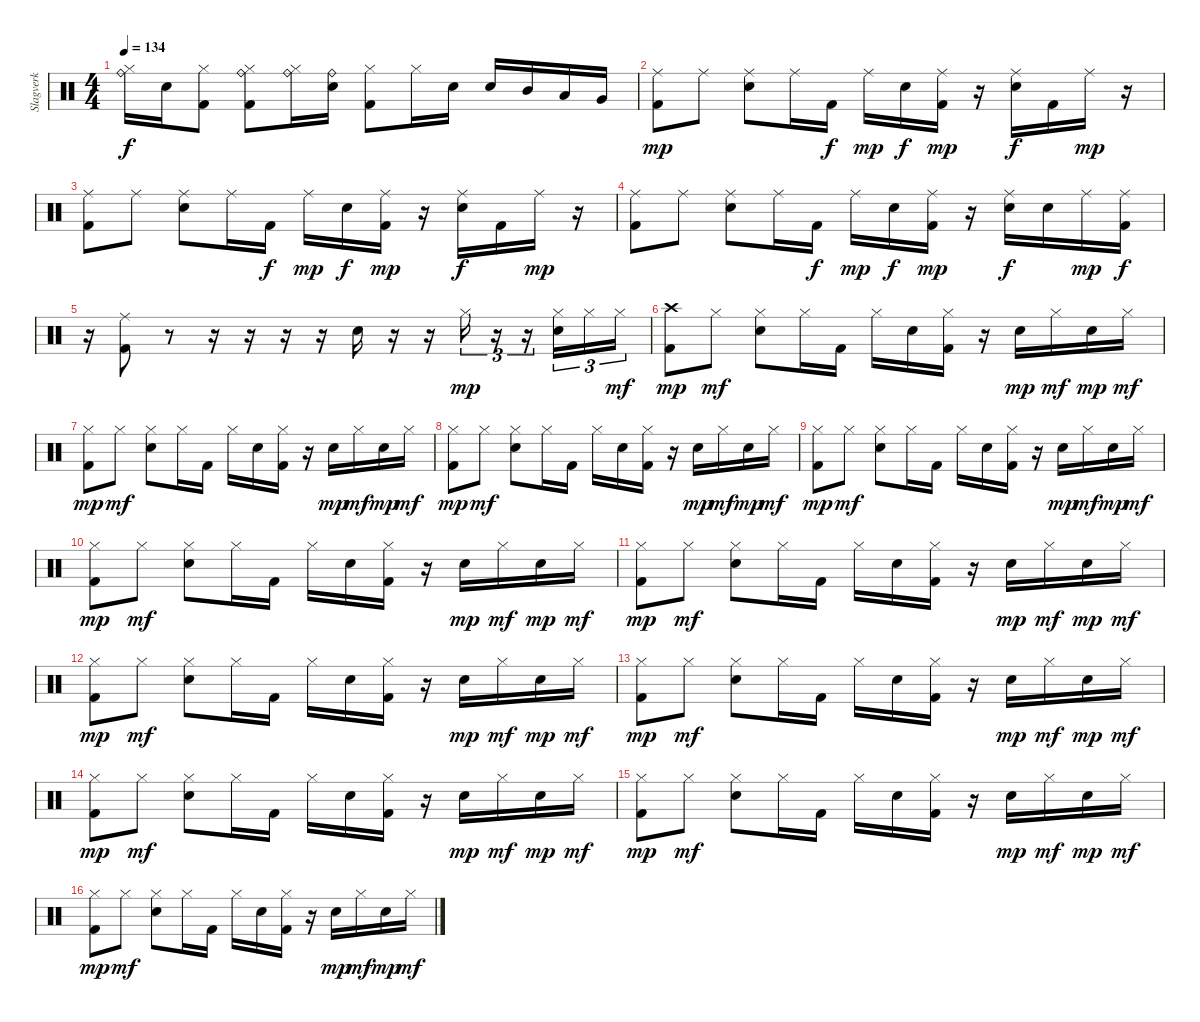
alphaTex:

\track ("Slagverk" "Slagverk") {instrument percussion}
\staff {score}
\articulation defaults
\ts (4 4)
\tempo 134
\clef neutral
\ks c
("Ride (bell)" "Hi-Hat (closed)").16{dy f} "Electric Snare (hit)".16 ("Kick (hit) 2" "Hi-Hat (closed)").8 ("Ride (bell)" "Kick (hit) 2" "Hi-Hat (closed)").8 ("Ride (bell)" "Hi-Hat (closed)").16 ("Ride (bell)" "Electric Snare (hit)").16 ("Kick (hit) 2" "Hi-Hat (closed)").8 "Hi-Hat (closed)".16 "Electric Snare (hit)".16 "Electric Snare (hit)".16 "Mid Tom (hit)".16 "Low Tom (hit)".16 "Very Low Tom (hit)".16 |
("Ride (middle)" "Kick (hit) 2").8{dy mp} "Ride (middle)".8 ("Ride (middle)" "Electric Snare (hit)").8 "Ride (middle)".16 "Kick (hit) 2".16{dy f} "Ride (middle)".16{dy mp} "Electric Snare (hit)".16{dy f} ("Ride (middle)" "Kick (hit) 2").16{dy mp} r.16 ("Ride (middle)" "Electric Snare (hit)").16{dy f} "Kick (hit) 2".16 "Ride (middle)".16{dy mp} r.16 |
("Ride (middle)" "Kick (hit) 2").8 "Ride (middle)".8 ("Ride (middle)" "Electric Snare (hit)").8 "Ride (middle)".16 "Kick (hit) 2".16{dy f} "Ride (middle)".16{dy mp} "Electric Snare (hit)".16{dy f} ("Ride (middle)" "Kick (hit) 2").16{dy mp} r.16 ("Ride (middle)" "Electric Snare (hit)").16{dy f} "Kick (hit) 2".16 "Ride (middle)".16{dy mp} r.16 |
("Ride (middle)" "Kick (hit) 2").8 "Ride (middle)".8 ("Ride (middle)" "Electric Snare (hit)").8 "Ride (middle)".16 "Kick (hit) 2".16{dy f} "Ride (middle)".16{dy mp} "Electric Snare (hit)".16{dy f} ("Ride (middle)" "Kick (hit) 2").16{dy mp} r.16 ("Ride (middle)" "Electric Snare (hit)").16{dy f} "Electric Snare (hit)".16 "Ride (middle)".16{dy mp} ("Ride (middle)" "Kick (hit) 2").16{dy f} |
r.16 ("Ride (middle)" "Kick (hit) 2").8 r.8 r.16 r.16 r.16 r.16 "Electric Snare (hit)".16 r.16 r.16 "Hi-Hat (closed)".16{tu (3 2) dy mp} r.16{tu (3 2)} r.16{tu (3 2)} ("Hi-Hat (closed)" "Electric Snare (hit)").16{tu (3 2)} "Hi-Hat (closed)".16{tu (3 2)} "Hi-Hat (closed)".16{tu (3 2) dy mf} |
("Crash high (hit)" "Kick (hit) 2").8{dy mp} "Hi-Hat (closed)".8{dy mf} ("Hi-Hat (closed)" "Electric Snare (hit)").8 "Hi-Hat (closed)".16 "Kick (hit) 2".16 "Hi-Hat (closed)".16 "Electric Snare (hit)".16 ("Hi-Hat (closed)" "Kick (hit) 2").16 r.16 "Electric Snare (hit)".16{dy mp} "Hi-Hat (closed)".16{dy mf} "Electric Snare (hit)".16{dy mp} "Hi-Hat (closed)".16{dy mf} |
("Hi-Hat (closed)" "Kick (hit) 2").8{dy mp} "Hi-Hat (closed)".8{dy mf} ("Hi-Hat (closed)" "Electric Snare (hit)").8 "Hi-Hat (closed)".16 "Kick (hit) 2".16 "Hi-Hat (closed)".16 "Electric Snare (hit)".16 ("Hi-Hat (closed)" "Kick (hit) 2").16 r.16 "Electric Snare (hit)".16{dy mp} "Hi-Hat (closed)".16{dy mf} "Electric Snare (hit)".16{dy mp} "Hi-Hat (closed)".16{dy mf} |
("Hi-Hat (closed)" "Kick (hit) 2").8{dy mp} "Hi-Hat (closed)".8{dy mf} ("Hi-Hat (closed)" "Electric Snare (hit)").8 "Hi-Hat (closed)".16 "Kick (hit) 2".16 "Hi-Hat (closed)".16 "Electric Snare (hit)".16 ("Hi-Hat (closed)" "Kick (hit) 2").16 r.16 "Electric Snare (hit)".16{dy mp} "Hi-Hat (closed)".16{dy mf} "Electric Snare (hit)".16{dy mp} "Hi-Hat (closed)".16{dy mf} |
("Hi-Hat (closed)" "Kick (hit) 2").8{dy mp} "Hi-Hat (closed)".8{dy mf} ("Hi-Hat (closed)" "Electric Snare (hit)").8 "Hi-Hat (closed)".16 "Kick (hit) 2".16 "Hi-Hat (closed)".16 "Electric Snare (hit)".16 ("Hi-Hat (closed)" "Kick (hit) 2").16 r.16 "Electric Snare (hit)".16{dy mp} "Hi-Hat (closed)".16{dy mf} "Electric Snare (hit)".16{dy mp} "Hi-Hat (closed)".16{dy mf} |
("Hi-Hat (closed)" "Kick (hit) 2").8{dy mp} "Hi-Hat (closed)".8{dy mf} ("Hi-Hat (closed)" "Electric Snare (hit)").8 "Hi-Hat (closed)".16 "Kick (hit) 2".16 "Hi-Hat (closed)".16 "Electric Snare (hit)".16 ("Hi-Hat (closed)" "Kick (hit) 2").16 r.16 "Electric Snare (hit)".16{dy mp} "Hi-Hat (closed)".16{dy mf} "Electric Snare (hit)".16{dy mp} "Hi-Hat (closed)".16{dy mf} |
("Hi-Hat (closed)" "Kick (hit) 2").8{dy mp} "Hi-Hat (closed)".8{dy mf} ("Hi-Hat (closed)" "Electric Snare (hit)").8 "Hi-Hat (closed)".16 "Kick (hit) 2".16 "Hi-Hat (closed)".16 "Electric Snare (hit)".16 ("Hi-Hat (closed)" "Kick (hit) 2").16 r.16 "Electric Snare (hit)".16{dy mp} "Hi-Hat (closed)".16{dy mf} "Electric Snare (hit)".16{dy mp} "Hi-Hat (closed)".16{dy mf} |
("Hi-Hat (closed)" "Kick (hit) 2").8{dy mp} "Hi-Hat (closed)".8{dy mf} ("Hi-Hat (closed)" "Electric Snare (hit)").8 "Hi-Hat (closed)".16 "Kick (hit) 2".16 "Hi-Hat (closed)".16 "Electric Snare (hit)".16 ("Hi-Hat (closed)" "Kick (hit) 2").16 r.16 "Electric Snare (hit)".16{dy mp} "Hi-Hat (closed)".16{dy mf} "Electric Snare (hit)".16{dy mp} "Hi-Hat (closed)".16{dy mf} |
("Hi-Hat (closed)" "Kick (hit) 2").8{dy mp} "Hi-Hat (closed)".8{dy mf} ("Hi-Hat (closed)" "Electric Snare (hit)").8 "Hi-Hat (closed)".16 "Kick (hit) 2".16 "Hi-Hat (closed)".16 "Electric Snare (hit)".16 ("Hi-Hat (closed)" "Kick (hit) 2").16 r.16 "Electric Snare (hit)".16{dy mp} "Hi-Hat (closed)".16{dy mf} "Electric Snare (hit)".16{dy mp} "Hi-Hat (closed)".16{dy mf} |
("Hi-Hat (closed)" "Kick (hit) 2").8{dy mp} "Hi-Hat (closed)".8{dy mf} ("Hi-Hat (closed)" "Electric Snare (hit)").8 "Hi-Hat (closed)".16 "Kick (hit) 2".16 "Hi-Hat (closed)".16 "Electric Snare (hit)".16 ("Hi-Hat (closed)" "Kick (hit) 2").16 r.16 "Electric Snare (hit)".16{dy mp} "Hi-Hat (closed)".16{dy mf} "Electric Snare (hit)".16{dy mp} "Hi-Hat (closed)".16{dy mf} |
("Hi-Hat (closed)" "Kick (hit) 2").8{dy mp} "Hi-Hat (closed)".8{dy mf} ("Hi-Hat (closed)" "Electric Snare (hit)").8 "Hi-Hat (closed)".16 "Kick (hit) 2".16 "Hi-Hat (closed)".16 "Electric Snare (hit)".16 ("Hi-Hat (closed)" "Kick (hit) 2").16 r.16 "Electric Snare (hit)".16{dy mp} "Hi-Hat (closed)".16{dy mf} "Electric Snare (hit)".16{dy mp} "Hi-Hat (closed)".16{dy mf} |
("Hi-Hat (closed)" "Kick (hit) 2").8{dy mp} "Hi-Hat (closed)".8{dy mf} ("Hi-Hat (closed)" "Electric Snare (hit)").8 "Hi-Hat (closed)".16 "Kick (hit) 2".16 "Hi-Hat (closed)".16 "Electric Snare (hit)".16 ("Hi-Hat (closed)" "Kick (hit) 2").16 r.16 "Electric Snare (hit)".16{dy mp} "Hi-Hat (closed)".16{dy mf} "Electric Snare (hit)".16{dy mp} "Hi-Hat (closed)".16{dy mf}
